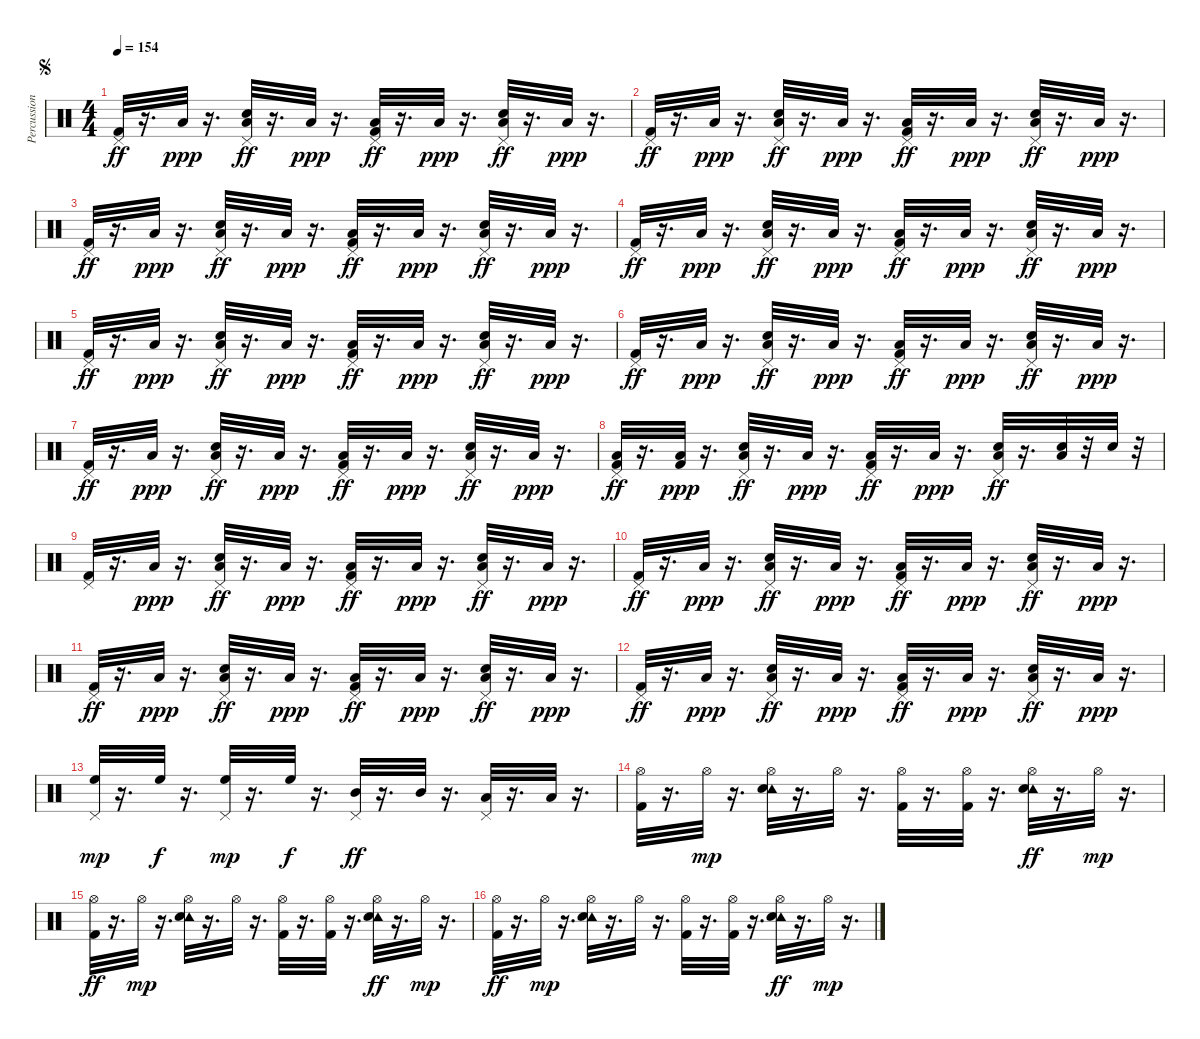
\track ("Percussions" "Percussion") {instrument percussion}
\staff {score}
\articulation defaults
\ts (4 4)
\jump segno
\tempo 154
\clef neutral
\ks c
("Pedal Hi-Hat (hit)" "Kick (hit) 2").32{dy ff} r.16{d} "Low Tom (hit)".32{dy ppp} r.16{d} ("Pedal Hi-Hat (hit)" "Low Tom (hit)" "Snare (hit) 2").32{dy ff} r.16{d} "Low Tom (hit)".32{dy ppp} r.16{d} ("Pedal Hi-Hat (hit)" "Low Tom (hit)" "Kick (hit) 2").32{dy ff} r.16{d} "Low Tom (hit)".32{dy ppp} r.16{d} ("Pedal Hi-Hat (hit)" "Low Tom (hit)" "Snare (hit) 2").32{dy ff} r.16{d} "Low Tom (hit)".32{dy ppp} r.16{d} |
("Pedal Hi-Hat (hit)" "Kick (hit) 2").32{dy ff} r.16{d} "Low Tom (hit)".32{dy ppp} r.16{d} ("Pedal Hi-Hat (hit)" "Low Tom (hit)" "Snare (hit) 2").32{dy ff} r.16{d} "Low Tom (hit)".32{dy ppp} r.16{d} ("Pedal Hi-Hat (hit)" "Low Tom (hit)" "Kick (hit) 2").32{dy ff} r.16{d} "Low Tom (hit)".32{dy ppp} r.16{d} ("Pedal Hi-Hat (hit)" "Low Tom (hit)" "Snare (hit) 2").32{dy ff} r.16{d} "Low Tom (hit)".32{dy ppp} r.16{d} |
("Pedal Hi-Hat (hit)" "Kick (hit) 2").32{dy ff} r.16{d} "Low Tom (hit)".32{dy ppp} r.16{d} ("Pedal Hi-Hat (hit)" "Low Tom (hit)" "Snare (hit) 2").32{dy ff} r.16{d} "Low Tom (hit)".32{dy ppp} r.16{d} ("Pedal Hi-Hat (hit)" "Low Tom (hit)" "Kick (hit) 2").32{dy ff} r.16{d} "Low Tom (hit)".32{dy ppp} r.16{d} ("Pedal Hi-Hat (hit)" "Low Tom (hit)" "Snare (hit) 2").32{dy ff} r.16{d} "Low Tom (hit)".32{dy ppp} r.16{d} |
("Pedal Hi-Hat (hit)" "Kick (hit) 2").32{dy ff} r.16{d} "Low Tom (hit)".32{dy ppp} r.16{d} ("Pedal Hi-Hat (hit)" "Low Tom (hit)" "Snare (hit) 2").32{dy ff} r.16{d} "Low Tom (hit)".32{dy ppp} r.16{d} ("Pedal Hi-Hat (hit)" "Low Tom (hit)" "Kick (hit) 2").32{dy ff} r.16{d} "Low Tom (hit)".32{dy ppp} r.16{d} ("Pedal Hi-Hat (hit)" "Low Tom (hit)" "Snare (hit) 2").32{dy ff} r.16{d} "Low Tom (hit)".32{dy ppp} r.16{d} |
("Pedal Hi-Hat (hit)" "Kick (hit) 2").32{dy ff} r.16{d} "Low Tom (hit)".32{dy ppp} r.16{d} ("Pedal Hi-Hat (hit)" "Low Tom (hit)" "Snare (hit) 2").32{dy ff} r.16{d} "Low Tom (hit)".32{dy ppp} r.16{d} ("Pedal Hi-Hat (hit)" "Low Tom (hit)" "Kick (hit) 2").32{dy ff} r.16{d} "Low Tom (hit)".32{dy ppp} r.16{d} ("Pedal Hi-Hat (hit)" "Low Tom (hit)" "Snare (hit) 2").32{dy ff} r.16{d} "Low Tom (hit)".32{dy ppp} r.16{d} |
("Pedal Hi-Hat (hit)" "Kick (hit) 2").32{dy ff} r.16{d} "Low Tom (hit)".32{dy ppp} r.16{d} ("Pedal Hi-Hat (hit)" "Low Tom (hit)" "Snare (hit) 2").32{dy ff} r.16{d} "Low Tom (hit)".32{dy ppp} r.16{d} ("Pedal Hi-Hat (hit)" "Low Tom (hit)" "Kick (hit) 2").32{dy ff} r.16{d} "Low Tom (hit)".32{dy ppp} r.16{d} ("Pedal Hi-Hat (hit)" "Low Tom (hit)" "Snare (hit) 2").32{dy ff} r.16{d} "Low Tom (hit)".32{dy ppp} r.16{d} |
("Pedal Hi-Hat (hit)" "Kick (hit) 2").32{dy ff} r.16{d} "Low Tom (hit)".32{dy ppp} r.16{d} ("Pedal Hi-Hat (hit)" "Low Tom (hit)" "Snare (hit) 2").32{dy ff} r.16{d} "Low Tom (hit)".32{dy ppp} r.16{d} ("Pedal Hi-Hat (hit)" "Low Tom (hit)" "Kick (hit) 2").32{dy ff} r.16{d} "Low Tom (hit)".32{dy ppp} r.16{d} ("Pedal Hi-Hat (hit)" "Low Tom (hit)" "Snare (hit) 2").32{dy ff} r.16{d} "Low Tom (hit)".32{dy ppp} r.16{d} |
("Pedal Hi-Hat (hit)" "Low Tom (hit)" "Kick (hit) 2").32{dy ff} r.16{d} ("Low Tom (hit)" "Kick (hit) 2").32{dy ppp} r.16{d} ("Pedal Hi-Hat (hit)" "Low Tom (hit)" "Snare (hit) 2").32{dy ff} r.16{d} "Low Tom (hit)".32{dy ppp} r.16{d} ("Pedal Hi-Hat (hit)" "Low Tom (hit)" "Kick (hit) 2").32{dy ff} r.16{d} "Low Tom (hit)".32{dy ppp} r.16{d} ("Pedal Hi-Hat (hit)" "Low Tom (hit)" "Snare (hit) 2").32{dy ff} r.16{d} ("Low Tom (hit)" "Snare (hit) 2").32 r.32 "Snare (hit) 2".32 r.32 |
("Pedal Hi-Hat (hit)" "Kick (hit) 2").32 r.16{d} "Low Tom (hit)".32{dy ppp} r.16{d} ("Pedal Hi-Hat (hit)" "Low Tom (hit)" "Snare (hit) 2").32{dy ff} r.16{d} "Low Tom (hit)".32{dy ppp} r.16{d} ("Pedal Hi-Hat (hit)" "Low Tom (hit)" "Kick (hit) 2").32{dy ff} r.16{d} "Low Tom (hit)".32{dy ppp} r.16{d} ("Pedal Hi-Hat (hit)" "Low Tom (hit)" "Snare (hit) 2").32{dy ff} r.16{d} "Low Tom (hit)".32{dy ppp} r.16{d} |
("Pedal Hi-Hat (hit)" "Kick (hit) 2").32{dy ff} r.16{d} "Low Tom (hit)".32{dy ppp} r.16{d} ("Pedal Hi-Hat (hit)" "Low Tom (hit)" "Snare (hit) 2").32{dy ff} r.16{d} "Low Tom (hit)".32{dy ppp} r.16{d} ("Pedal Hi-Hat (hit)" "Low Tom (hit)" "Kick (hit) 2").32{dy ff} r.16{d} "Low Tom (hit)".32{dy ppp} r.16{d} ("Pedal Hi-Hat (hit)" "Low Tom (hit)" "Snare (hit) 2").32{dy ff} r.16{d} "Low Tom (hit)".32{dy ppp} r.16{d} |
("Pedal Hi-Hat (hit)" "Kick (hit) 2").32{dy ff} r.16{d} "Low Tom (hit)".32{dy ppp} r.16{d} ("Pedal Hi-Hat (hit)" "Low Tom (hit)" "Snare (hit) 2").32{dy ff} r.16{d} "Low Tom (hit)".32{dy ppp} r.16{d} ("Pedal Hi-Hat (hit)" "Low Tom (hit)" "Kick (hit) 2").32{dy ff} r.16{d} "Low Tom (hit)".32{dy ppp} r.16{d} ("Pedal Hi-Hat (hit)" "Low Tom (hit)" "Snare (hit) 2").32{dy ff} r.16{d} "Low Tom (hit)".32{dy ppp} r.16{d} |
("Pedal Hi-Hat (hit)" "Kick (hit) 2").32{dy ff} r.16{d} "Low Tom (hit)".32{dy ppp} r.16{d} ("Pedal Hi-Hat (hit)" "Low Tom (hit)" "Snare (hit) 2").32{dy ff} r.16{d} "Low Tom (hit)".32{dy ppp} r.16{d} ("Pedal Hi-Hat (hit)" "Low Tom (hit)" "Kick (hit) 2").32{dy ff} r.16{d} "Low Tom (hit)".32{dy ppp} r.16{d} ("Pedal Hi-Hat (hit)" "Low Tom (hit)" "Snare (hit) 2").32{dy ff} r.16{d} "Low Tom (hit)".32{dy ppp} r.16{d} |
("Pedal Hi-Hat (hit)" "High Floor Tom (hit)").32{dy mp} r.16{d} "High Floor Tom (hit)".32{dy f} r.16{d} ("Pedal Hi-Hat (hit)" "High Floor Tom (hit)").32{dy mp} r.16{d} "High Floor Tom (hit)".32{dy f} r.16{d} ("Pedal Hi-Hat (hit)" "Mid Tom (hit)").32{dy ff} r.16{d} "Mid Tom (hit)".32 r.16{d} ("Pedal Hi-Hat (hit)" "Low Tom (hit)").32 r.16{d} "Low Tom (hit)".32 r.16{d} |
("Hi-Hat (open)" "Kick (hit) 2").32 r.16{d} "Hi-Hat (open)".32{dy mp} r.16{d} ("Hi-Hat (open)" "Tambourine (hit)" "Snare (hit) 2").32 r.16{d} "Hi-Hat (open)".32 r.16{d} ("Hi-Hat (open)" "Kick (hit) 2").32 r.16{d} ("Hi-Hat (open)" "Kick (hit) 2").32 r.16{d} ("Hi-Hat (open)" "Tambourine (hit)" "Snare (hit) 2").32{dy ff} r.16{d} "Hi-Hat (open)".32{dy mp} r.16{d} |
("Hi-Hat (open)" "Kick (hit) 2").32{dy ff} r.16{d} "Hi-Hat (open)".32{dy mp} r.16{d} ("Hi-Hat (open)" "Tambourine (hit)" "Snare (hit) 2").32 r.16{d} "Hi-Hat (open)".32 r.16{d} ("Hi-Hat (open)" "Kick (hit) 2").32 r.16{d} ("Hi-Hat (open)" "Kick (hit) 2").32 r.16{d} ("Hi-Hat (open)" "Tambourine (hit)" "Snare (hit) 2").32{dy ff} r.16{d} "Hi-Hat (open)".32{dy mp} r.16{d} |
("Hi-Hat (open)" "Kick (hit) 2").32{dy ff} r.16{d} "Hi-Hat (open)".32{dy mp} r.16{d} ("Hi-Hat (open)" "Tambourine (hit)" "Snare (hit) 2").32 r.16{d} "Hi-Hat (open)".32 r.16{d} ("Hi-Hat (open)" "Kick (hit) 2").32 r.16{d} ("Hi-Hat (open)" "Kick (hit) 2").32 r.16{d} ("Hi-Hat (open)" "Tambourine (hit)" "Snare (hit) 2").32{dy ff} r.16{d} "Hi-Hat (open)".32{dy mp} r.16{d}
